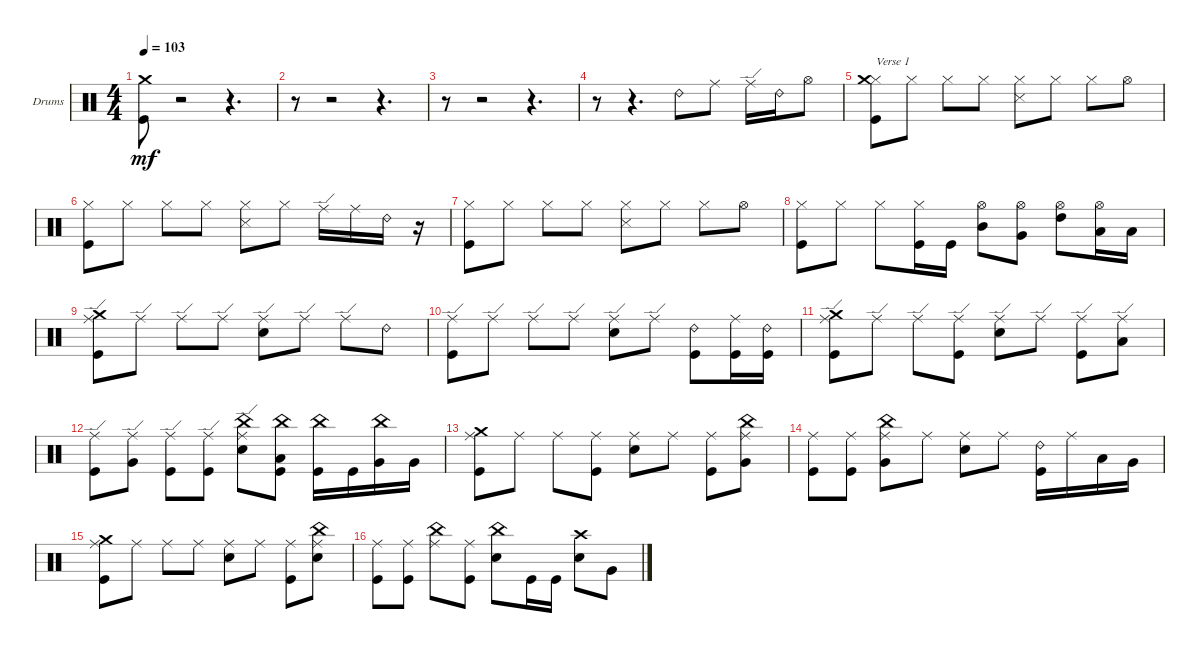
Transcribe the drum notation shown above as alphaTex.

\bracketExtendMode groupsimilarinstruments
\firstSystemTrackNameOrientation horizontal
\otherSystemsTrackNameOrientation horizontal
\track ("Drums" "Drums") {instrument percussion}
\staff {score}
\articulation defaults
\ts (4 4)
\tempo 103
\clef neutral
\ks c
("Kick (hit)" "Crash medium (hit)").8{dy mf} r.2 r.4{d} |
r.8 r.2 r.4{d} |
r.8 r.2 r.4{d} |
r.8 r.4{d} "Ride (bell) 2".8 "Ride (middle)".8 "Ride (edge)".16 "Ride (bell) 2".16 "Hi-Hat (open)".8 |
("Hi-Hat (closed)" "Kick (hit)" "Crash medium (hit)").8{txt "Verse 1"} "Hi-Hat (closed)".8 "Hi-Hat (closed)".8 "Hi-Hat (closed)".8 ("Snare (side stick) 3" "Hi-Hat (closed)").8 "Hi-Hat (closed)".8 "Hi-Hat (closed)".8 "Hi-Hat (open)".8 |
("Hi-Hat (closed)" "Kick (hit)").8 "Hi-Hat (closed)".8 "Hi-Hat (closed)".8 "Hi-Hat (closed)".8 ("Snare (side stick) 3" "Hi-Hat (closed)").8 "Hi-Hat (closed)".8 "Ride (edge)".16 "Ride (middle)".16 "Ride (bell) 2".16 r.16 |
("Hi-Hat (closed)" "Kick (hit)").8 "Hi-Hat (closed)".8 "Hi-Hat (closed)".8 "Hi-Hat (closed)".8 ("Snare (side stick) 3" "Hi-Hat (closed)").8 "Hi-Hat (closed)".8 "Hi-Hat (closed)".8 "Hi-Hat (open)".8 |
("Hi-Hat (closed)" "Kick (hit)").8 "Hi-Hat (closed)".8 "Hi-Hat (closed)".8 ("Kick (hit)" "Hi-Hat (closed)").16 "Kick (hit)".16 ("Mid Tom (hit)" "Hi-Hat (open)").8 ("Very Low Tom (hit)" "Hi-Hat (open)").8 ("High Tom (hit)" "Hi-Hat (open)").8 ("Low Tom (hit)" "Hi-Hat (open)").16 "Low Tom (hit)".16 |
("Ride (edge)" "Crash medium (hit)" "Kick (hit)").8 "Ride (edge)".8 "Ride (edge)".8 "Ride (edge)".8 ("Ride (edge)" "Snare (hit) 2").8 "Ride (edge)".8 "Ride (edge)".8 "Ride (bell) 2".8 |
("Ride (edge)" "Kick (hit)").8 "Ride (edge)".8 "Ride (edge)".8 "Ride (edge)".8 ("Ride (edge)" "Snare (hit) 2").8 "Ride (edge)".8 ("Ride (bell) 2" "Kick (hit)").8 ("Ride (middle)" "Kick (hit)").16 ("Ride (bell) 2" "Kick (hit)").16 |
("Ride (edge)" "Kick (hit)" "Crash medium (hit)").8 "Ride (edge)".8 "Ride (edge)".8 ("Ride (edge)" "Kick (hit)").8 ("Ride (edge)" "Snare (hit) 2").8 "Ride (edge)".8 ("Ride (edge)" "Kick (hit)").8 ("Ride (edge)" "Low Tom (hit)").8 |
("Ride (edge)" "Kick (hit)").8 ("Ride (edge)" "Very Low Tom (hit)").8 ("Ride (edge)" "Kick (hit)").8 ("Ride (edge)" "Kick (hit)").8 ("Ride (edge)" "Snare (hit) 2" "China (hit)").8 ("Low Tom (hit)" "China (hit)" "Kick (hit)").8 ("Kick (hit)" "China (hit)").16 "Kick (hit)".16 ("Very Low Tom (hit)" "China (hit)").16 "Very Low Tom (hit)".16 |
("Crash medium (hit)" "Kick (hit)" "Ride (middle)").8 "Ride (middle)".8 "Ride (middle)".8 ("Kick (hit)" "Ride (middle)").8 ("Snare (hit) 2" "Ride (middle)").8 "Ride (middle)".8 ("Kick (hit)" "Ride (middle)").8 ("Very Low Tom (hit)" "China (hit)" "Ride (middle)").8 |
("Kick (hit)" "Ride (middle)").8 ("Kick (hit)" "Ride (middle)").8 ("Ride (middle)" "Very Low Tom (hit)" "China (hit)").8 "Ride (middle)".8 ("Ride (middle)" "Snare (hit) 2").8 "Ride (middle)".8 ("Ride (bell) 2" "Kick (hit)").16 "Ride (middle)".16 "Low Tom (hit)".16 "Very Low Tom (hit)".16 |
("Kick (hit)" "Crash medium (hit)" "Ride (middle)").8 "Ride (middle)".8 "Ride (middle)".8 "Ride (middle)".8 ("Snare (hit) 2" "Ride (middle)").8 "Ride (middle)".8 ("Kick (hit)" "Ride (middle)").8 ("Ride (middle)" "Snare (hit) 2" "China (hit)").8 |
("Kick (hit)" "Ride (middle)").8 ("Kick (hit)" "Ride (middle)").8 ("Ride (middle)" "China (hit)").8 ("Kick (hit)" "Ride (middle)").8 ("Snare (hit) 2" "China (hit)").8 "Kick (hit)".16 "Kick (hit)".16 ("Crash high (hit)" "Snare (hit) 2").8 "Very Low Tom (hit)".8
